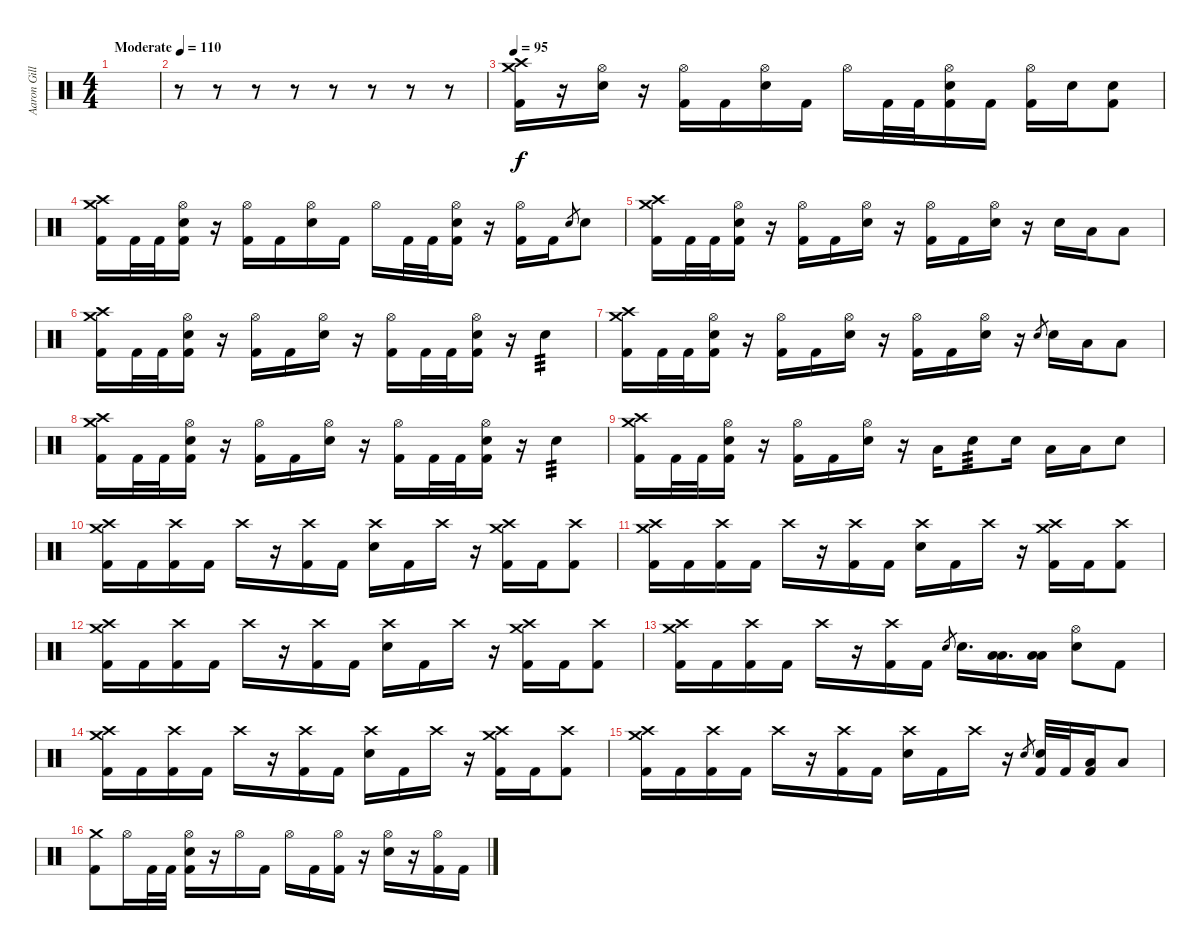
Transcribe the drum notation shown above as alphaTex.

\track ("Aaron Gillespie" "Aaron Gill") {instrument percussion}
\staff {score}
\articulation defaults
\ts (4 4)
\tempo (110 "Moderate")
\clef neutral
\ks c
|
r.8 r.8 r.8 r.8 r.8 r.8 r.8 r.8 |
\tempo 95
("Crash medium (hit)" "Crash high (hit)" "Kick (hit) 2").16 r.16 ("Electric Snare (hit)" "Hi-Hat (open)").16 r.16 ("Hi-Hat (open)" "Kick (hit) 2").16 "Kick (hit) 2".16 ("Electric Snare (hit)" "Hi-Hat (open)").16 "Kick (hit) 2".16 "Hi-Hat (open)".16 "Kick (hit) 2".32 "Kick (hit) 2".32 ("Electric Snare (hit)" "Hi-Hat (open)" "Kick (hit) 2").16 "Kick (hit) 2".16 ("Hi-Hat (open)" "Kick (hit) 2").16 "Electric Snare (hit)".16 ("Electric Snare (hit)" "Kick (hit) 2").8 |
("Crash medium (hit)" "Crash high (hit)" "Kick (hit) 2").16 "Kick (hit) 2".32 "Kick (hit) 2".32 ("Electric Snare (hit)" "Hi-Hat (open)" "Kick (hit) 2").16 r.16 ("Hi-Hat (open)" "Kick (hit) 2").16 "Kick (hit) 2".16 ("Electric Snare (hit)" "Hi-Hat (open)").16 "Kick (hit) 2".16 "Hi-Hat (open)".16 "Kick (hit) 2".32 "Kick (hit) 2".32 ("Electric Snare (hit)" "Hi-Hat (open)" "Kick (hit) 2").16 r.16 ("Hi-Hat (open)" "Kick (hit) 2").16 "Kick (hit) 2".16 "Electric Snare (hit)".8{gr} "Electric Snare (hit)".8 |
("Crash medium (hit)" "Crash high (hit)" "Kick (hit) 2").16 "Kick (hit) 2".32 "Kick (hit) 2".32 ("Electric Snare (hit)" "Hi-Hat (open)" "Kick (hit) 2").16 r.16 ("Hi-Hat (open)" "Kick (hit) 2").16 "Kick (hit) 2".16 ("Electric Snare (hit)" "Hi-Hat (open)").16 r.16 ("Hi-Hat (open)" "Kick (hit) 2").16 "Kick (hit) 2".16 ("Electric Snare (hit)" "Hi-Hat (open)").16 r.16 "Electric Snare (hit)".16 "Low Tom (hit)".16 "Low Tom (hit)".8 |
("Crash medium (hit)" "Crash high (hit)" "Kick (hit) 2").16 "Kick (hit) 2".32 "Kick (hit) 2".32 ("Electric Snare (hit)" "Hi-Hat (open)" "Kick (hit) 2").16 r.16 ("Hi-Hat (open)" "Kick (hit) 2").16 "Kick (hit) 2".16 ("Electric Snare (hit)" "Hi-Hat (open)").16 r.16 ("Hi-Hat (open)" "Kick (hit) 2").16 "Kick (hit) 2".32 "Kick (hit) 2".32 ("Electric Snare (hit)" "Hi-Hat (open)" "Kick (hit) 2").16 r.16 "Electric Snare (hit)".4{tp 3} |
("Crash medium (hit)" "Crash high (hit)" "Kick (hit) 2").16 "Kick (hit) 2".32 "Kick (hit) 2".32 ("Electric Snare (hit)" "Hi-Hat (open)" "Kick (hit) 2").16 r.16 ("Hi-Hat (open)" "Kick (hit) 2").16 "Kick (hit) 2".16 ("Electric Snare (hit)" "Hi-Hat (open)").16 r.16 ("Hi-Hat (open)" "Kick (hit) 2").16 "Kick (hit) 2".16 ("Electric Snare (hit)" "Hi-Hat (open)").16 r.16 "Electric Snare (hit)".8{gr} "Electric Snare (hit)".16 "Low Floor Tom (hit)".16 "Low Tom (hit)".8 |
("Crash medium (hit)" "Crash high (hit)" "Kick (hit) 2").16 "Kick (hit) 2".32 "Kick (hit) 2".32 ("Electric Snare (hit)" "Hi-Hat (open)" "Kick (hit) 2").16 r.16 ("Hi-Hat (open)" "Kick (hit) 2").16 "Kick (hit) 2".16 ("Electric Snare (hit)" "Hi-Hat (open)").16 r.16 ("Hi-Hat (open)" "Kick (hit) 2").16 "Kick (hit) 2".32 "Kick (hit) 2".32 ("Electric Snare (hit)" "Hi-Hat (open)" "Kick (hit) 2").16 r.16 "Electric Snare (hit)".4{tp 3} |
("Crash medium (hit)" "Crash high (hit)" "Kick (hit) 2").16 "Kick (hit) 2".32 "Kick (hit) 2".32 ("Electric Snare (hit)" "Hi-Hat (open)" "Kick (hit) 2").16 r.16 ("Hi-Hat (open)" "Kick (hit) 2").16 "Kick (hit) 2".16 ("Electric Snare (hit)" "Hi-Hat (open)").16 r.16 "Low Tom (hit)".16 "Electric Snare (hit)".8{tp 3} "Electric Snare (hit)".16 "Low Tom (hit)".16 "Low Floor Tom (hit)".16 "Electric Snare (hit)".8 |
("Crash medium (hit)" "Crash high (hit)" "Kick (hit) 2").16 "Kick (hit) 2".16 ("Crash high (hit)" "Kick (hit) 2").16 "Kick (hit) 2".16 "Crash high (hit)".16 r.16 ("Crash high (hit)" "Kick (hit) 2").16 "Kick (hit) 2".16 ("Crash high (hit)" "Electric Snare (hit)").16 "Kick (hit) 2".16 "Crash high (hit)".16 r.16 ("Crash medium (hit)" "Crash high (hit)" "Kick (hit) 2").16 "Kick (hit) 2".16 ("Crash high (hit)" "Kick (hit) 2").8 |
("Crash medium (hit)" "Crash high (hit)" "Kick (hit) 2").16 "Kick (hit) 2".16 ("Crash high (hit)" "Kick (hit) 2").16 "Kick (hit) 2".16 "Crash high (hit)".16 r.16 ("Crash high (hit)" "Kick (hit) 2").16 "Kick (hit) 2".16 ("Crash high (hit)" "Electric Snare (hit)").16 "Kick (hit) 2".16 "Crash high (hit)".16 r.16 ("Crash medium (hit)" "Crash high (hit)" "Kick (hit) 2").16 "Kick (hit) 2".16 ("Crash high (hit)" "Kick (hit) 2").8 |
("Crash medium (hit)" "Crash high (hit)" "Kick (hit) 2").16 "Kick (hit) 2".16 ("Crash high (hit)" "Kick (hit) 2").16 "Kick (hit) 2".16 "Crash high (hit)".16 r.16 ("Crash high (hit)" "Kick (hit) 2").16 "Kick (hit) 2".16 ("Crash high (hit)" "Electric Snare (hit)").16 "Kick (hit) 2".16 "Crash high (hit)".16 r.16 ("Crash medium (hit)" "Crash high (hit)" "Kick (hit) 2").16 "Kick (hit) 2".16 ("Crash high (hit)" "Kick (hit) 2").8 |
("Crash medium (hit)" "Crash high (hit)" "Kick (hit) 2").16 "Kick (hit) 2".16 ("Crash high (hit)" "Kick (hit) 2").16 "Kick (hit) 2".16 "Crash high (hit)".16 r.16 ("Crash high (hit)" "Kick (hit) 2").16 "Kick (hit) 2".16 "Electric Snare (hit)".8{gr} "Electric Snare (hit)".16{d} ("Low Floor Tom (hit)" "Low Tom (hit)").16{d} ("Low Floor Tom (hit)" "Low Tom (hit)").16 ("Hi-Hat (open)" "Electric Snare (hit)").8 "Kick (hit) 2".8 |
("Crash medium (hit)" "Crash high (hit)" "Kick (hit) 2").16 "Kick (hit) 2".16 ("Crash high (hit)" "Kick (hit) 2").16 "Kick (hit) 2".16 "Crash high (hit)".16 r.16 ("Crash high (hit)" "Kick (hit) 2").16 "Kick (hit) 2".16 ("Crash high (hit)" "Electric Snare (hit)").16 "Kick (hit) 2".16 "Crash high (hit)".16 r.16 ("Crash medium (hit)" "Crash high (hit)" "Kick (hit) 2").16 "Kick (hit) 2".16 ("Crash high (hit)" "Kick (hit) 2").8 |
("Crash medium (hit)" "Crash high (hit)" "Kick (hit) 2").16 "Kick (hit) 2".16 ("Crash high (hit)" "Kick (hit) 2").16 "Kick (hit) 2".16 "Crash high (hit)".16 r.16 ("Crash high (hit)" "Kick (hit) 2").16 "Kick (hit) 2".16 ("Crash high (hit)" "Electric Snare (hit)").16 "Kick (hit) 2".16 "Crash high (hit)".16 r.16 "Electric Snare (hit)".8{gr} ("Electric Snare (hit)" "Kick (hit) 2").32 "Kick (hit) 2".32 ("Low Tom (hit)" "Kick (hit) 2").16 "Low Floor Tom (hit)".8 |
("Crash medium (hit)" "Kick (hit) 2").8 "Hi-Hat (open)".16 "Kick (hit) 2".32 "Kick (hit) 2".32 ("Electric Snare (hit)" "Hi-Hat (open)" "Kick (hit) 2").16 r.16 "Hi-Hat (open)".16 "Kick (hit) 2".16 "Hi-Hat (open)".16 "Kick (hit) 2".16 ("Hi-Hat (open)" "Kick (hit) 2").16 r.16 ("Electric Snare (hit)" "Hi-Hat (open)").16 r.16 ("Hi-Hat (open)" "Kick (hit) 2").16 "Kick (hit) 2".16
